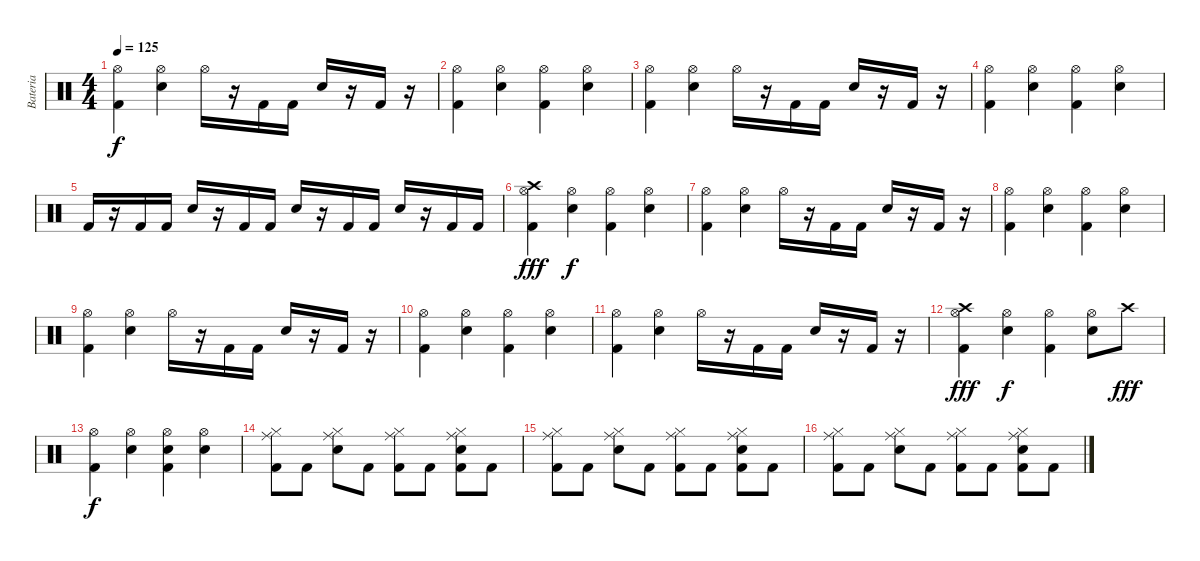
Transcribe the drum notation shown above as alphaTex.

\track ("Bateria" "Bateria") {instrument percussion}
\staff {score}
\articulation defaults
\ts (4 4)
\tempo 125
\clef neutral
\ks c
("Hi-Hat (open)" "Kick (hit) 2").4{dy f} ("Hi-Hat (open)" "Snare (hit) 2").4 "Hi-Hat (open)".16 r.16 "Kick (hit) 2".16 "Kick (hit) 2".16 "Snare (hit) 2".16 r.16 "Kick (hit) 2".16 r.16 |
("Hi-Hat (open)" "Kick (hit) 2").4 ("Hi-Hat (open)" "Snare (hit) 2").4 ("Hi-Hat (open)" "Kick (hit) 2").4 ("Hi-Hat (open)" "Snare (hit) 2").4 |
("Hi-Hat (open)" "Kick (hit) 2").4 ("Hi-Hat (open)" "Snare (hit) 2").4 "Hi-Hat (open)".16 r.16 "Kick (hit) 2".16 "Kick (hit) 2".16 "Snare (hit) 2".16 r.16 "Kick (hit) 2".16 r.16 |
("Hi-Hat (open)" "Kick (hit) 2").4 ("Hi-Hat (open)" "Snare (hit) 2").4 ("Hi-Hat (open)" "Kick (hit) 2").4 ("Hi-Hat (open)" "Snare (hit) 2").4 |
"Kick (hit) 2".16 r.16 "Kick (hit) 2".16 "Kick (hit) 2".16 "Snare (hit) 2".16 r.16 "Kick (hit) 2".16 "Kick (hit) 2".16 "Snare (hit) 2".16 r.16 "Kick (hit) 2".16 "Kick (hit) 2".16 "Snare (hit) 2".16 r.16 "Kick (hit) 2".16 "Kick (hit) 2".16 |
("Hi-Hat (open)" "Kick (hit) 2" "Crash high (hit)").4{dy fff} ("Hi-Hat (open)" "Snare (hit) 2").4{dy f} ("Hi-Hat (open)" "Kick (hit) 2").4 ("Hi-Hat (open)" "Snare (hit) 2").4 |
("Hi-Hat (open)" "Kick (hit) 2").4 ("Hi-Hat (open)" "Snare (hit) 2").4 "Hi-Hat (open)".16 r.16 "Kick (hit) 2".16 "Kick (hit) 2".16 "Snare (hit) 2".16 r.16 "Kick (hit) 2".16 r.16 |
("Hi-Hat (open)" "Kick (hit) 2").4 ("Hi-Hat (open)" "Snare (hit) 2").4 ("Hi-Hat (open)" "Kick (hit) 2").4 ("Hi-Hat (open)" "Snare (hit) 2").4 |
("Hi-Hat (open)" "Kick (hit) 2").4 ("Hi-Hat (open)" "Snare (hit) 2").4 "Hi-Hat (open)".16 r.16 "Kick (hit) 2".16 "Kick (hit) 2".16 "Snare (hit) 2".16 r.16 "Kick (hit) 2".16 r.16 |
("Hi-Hat (open)" "Kick (hit) 2").4 ("Hi-Hat (open)" "Snare (hit) 2").4 ("Hi-Hat (open)" "Kick (hit) 2").4 ("Hi-Hat (open)" "Snare (hit) 2").4 |
("Hi-Hat (open)" "Kick (hit) 2").4 ("Hi-Hat (open)" "Snare (hit) 2").4 "Hi-Hat (open)".16 r.16 "Kick (hit) 2".16 "Kick (hit) 2".16 "Snare (hit) 2".16 r.16 "Kick (hit) 2".16 r.16 |
("Hi-Hat (open)" "Kick (hit) 2" "Crash high (hit)").4{dy fff} ("Hi-Hat (open)" "Snare (hit) 2").4{dy f} ("Hi-Hat (open)" "Kick (hit) 2").4 ("Hi-Hat (open)" "Snare (hit) 2").8 "Crash high (hit)".8{dy fff} |
("Hi-Hat (open)" "Kick (hit) 2").4{dy f} ("Hi-Hat (open)" "Snare (hit) 2").4 ("Hi-Hat (open)" "Kick (hit) 2" "Snare (hit) 2").4 ("Hi-Hat (open)" "Snare (hit) 2").4 |
("Kick (hit) 2" "Hi-Hat (closed)" "Ride (middle)").8 "Kick (hit) 2".8 ("Snare (hit) 2" "Hi-Hat (closed)" "Ride (middle)").8 "Kick (hit) 2".8 ("Kick (hit) 2" "Hi-Hat (closed)" "Ride (middle)").8 "Kick (hit) 2".8 ("Kick (hit) 2" "Snare (hit) 2" "Hi-Hat (closed)" "Ride (middle)").8 "Kick (hit) 2".8 |
("Kick (hit) 2" "Hi-Hat (closed)" "Ride (middle)").8 "Kick (hit) 2".8 ("Snare (hit) 2" "Hi-Hat (closed)" "Ride (middle)").8 "Kick (hit) 2".8 ("Kick (hit) 2" "Hi-Hat (closed)" "Ride (middle)").8 "Kick (hit) 2".8 ("Kick (hit) 2" "Snare (hit) 2" "Hi-Hat (closed)" "Ride (middle)").8 "Kick (hit) 2".8 |
("Kick (hit) 2" "Hi-Hat (closed)" "Ride (middle)").8 "Kick (hit) 2".8 ("Snare (hit) 2" "Hi-Hat (closed)" "Ride (middle)").8 "Kick (hit) 2".8 ("Kick (hit) 2" "Hi-Hat (closed)" "Ride (middle)").8 "Kick (hit) 2".8 ("Kick (hit) 2" "Snare (hit) 2" "Hi-Hat (closed)" "Ride (middle)").8 "Kick (hit) 2".8
